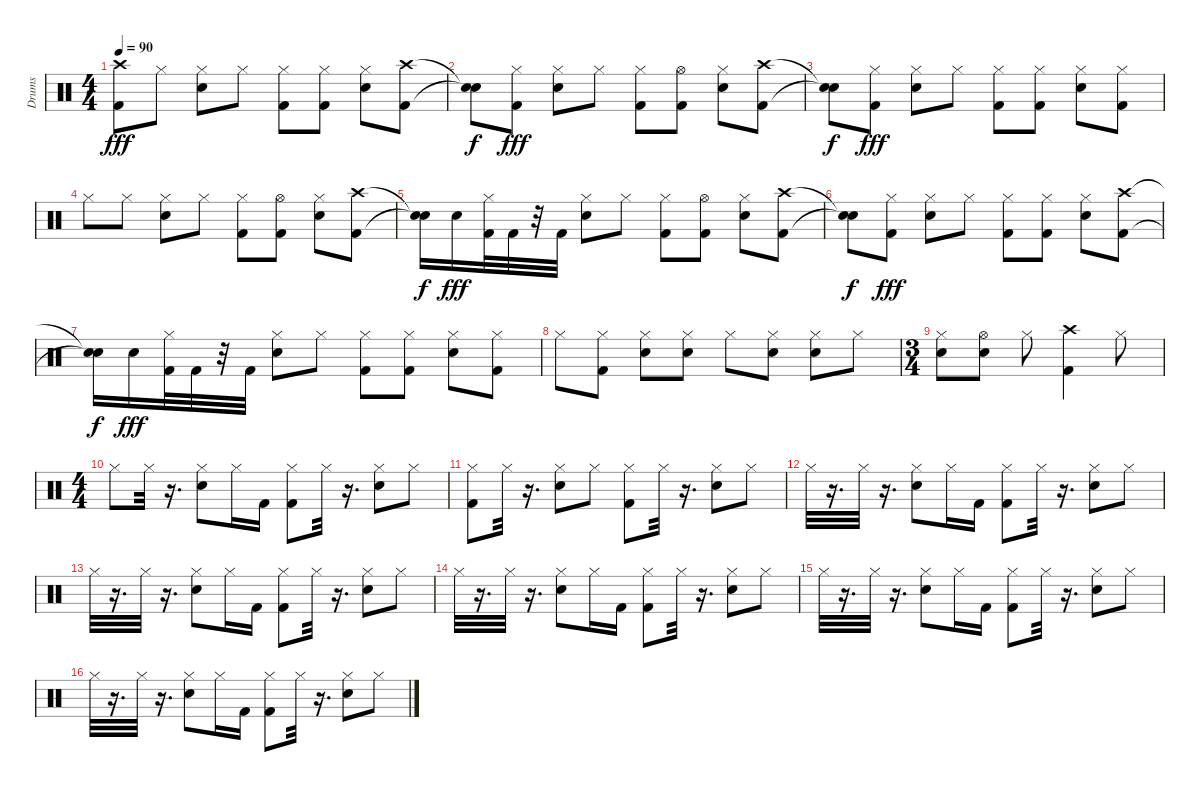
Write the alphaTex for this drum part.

\track ("Drums" "Drums") {instrument percussion}
\staff {score}
\articulation defaults
\ts (4 4)
\tempo 90
\clef neutral
\ks c
("Kick (hit) 2" "Crash high (hit)").8{dy fff} "Hi-Hat (closed)".8 ("Hi-Hat (closed)" "Snare (hit) 2").8 "Hi-Hat (closed)".8 ("Kick (hit) 2" "Hi-Hat (closed)").8 ("Kick (hit) 2" "Hi-Hat (closed)").8 ("Hi-Hat (closed)" "Electric Snare (hit)").8 ("Kick (hit) 2" "Crash high (hit)").8 |
("Snare (hit)"{t} "Snare (hit)"{t}).8{dy f} ("Hi-Hat (closed)" "Kick (hit) 2").8{dy fff} ("Electric Snare (hit)" "Hi-Hat (closed)").8 "Hi-Hat (closed)".8 ("Kick (hit) 2" "Hi-Hat (closed)").8 ("Kick (hit) 2" "Hi-Hat (open)").8 ("Hi-Hat (closed)" "Electric Snare (hit)").8 ("Kick (hit) 2" "Crash high (hit)").8 |
("Snare (hit)"{t} "Snare (hit)"{t}).8{dy f} ("Hi-Hat (closed)" "Kick (hit) 2").8{dy fff} ("Electric Snare (hit)" "Hi-Hat (closed)").8 "Hi-Hat (closed)".8 ("Kick (hit) 2" "Hi-Hat (closed)").8 ("Kick (hit) 2" "Hi-Hat (closed)").8 ("Hi-Hat (closed)" "Electric Snare (hit)").8 ("Hi-Hat (closed)" "Kick (hit) 2").8 |
"Hi-Hat (closed)".8 "Hi-Hat (closed)".8 ("Electric Snare (hit)" "Hi-Hat (closed)").8 "Hi-Hat (closed)".8 ("Kick (hit) 2" "Hi-Hat (closed)").8 ("Kick (hit) 2" "Hi-Hat (open)").8 ("Hi-Hat (closed)" "Electric Snare (hit)").8 ("Kick (hit) 2" "Crash high (hit)").8 |
("Snare (hit)"{t} "Snare (hit)"{t}).16{dy f} "Snare (hit) 2".16{dy fff} ("Kick (hit) 2" "Hi-Hat (closed)").32 "Kick (hit) 2".32 r.32 "Kick (hit) 2".32 ("Electric Snare (hit)" "Hi-Hat (closed)").8 "Hi-Hat (closed)".8 ("Kick (hit) 2" "Hi-Hat (closed)").8 ("Kick (hit) 2" "Hi-Hat (open)").8 ("Hi-Hat (closed)" "Electric Snare (hit)").8 ("Kick (hit) 2" "Crash high (hit)").8 |
("Snare (hit)"{t} "Snare (hit)"{t}).8{dy f} ("Kick (hit) 2" "Hi-Hat (closed)").8{dy fff} ("Snare (hit) 2" "Hi-Hat (closed)").8 "Hi-Hat (closed)".8 ("Kick (hit) 2" "Hi-Hat (closed)").8 ("Kick (hit) 2" "Hi-Hat (closed)").8 ("Hi-Hat (closed)" "Electric Snare (hit)").8 ("Crash high (hit)" "Kick (hit) 2").8 |
("Snare (hit)"{t} "Snare (hit)"{t}).16{dy f} "Snare (hit) 2".16{dy fff} ("Hi-Hat (closed)" "Kick (hit) 2").32 "Kick (hit) 2".32 r.32 "Kick (hit) 2".32 ("Hi-Hat (closed)" "Electric Snare (hit)").8 "Hi-Hat (closed)".8 ("Kick (hit) 2" "Hi-Hat (closed)").8 ("Hi-Hat (closed)" "Kick (hit) 2").8 ("Electric Snare (hit)" "Hi-Hat (closed)").8 ("Hi-Hat (closed)" "Kick (hit) 2").8 |
"Hi-Hat (closed)".8 ("Kick (hit) 2" "Hi-Hat (closed)").8 ("Snare (hit) 2" "Hi-Hat (closed)").8 ("Electric Snare (hit)" "Hi-Hat (closed)").8 "Hi-Hat (closed)".8 ("Snare (hit) 2" "Hi-Hat (closed)").8 ("Hi-Hat (closed)" "Electric Snare (hit)").8 "Hi-Hat (closed)".8 |
\ts (3 4)
("Snare (hit) 2" "Hi-Hat (closed)").8 ("Hi-Hat (open)" "Snare (hit) 2").8 "Hi-Hat (closed)".8 ("Kick (hit) 2" "Crash high (hit)").4 "Hi-Hat (closed)".8 |
\ts (4 4)
"Hi-Hat (closed)".8 "Hi-Hat (closed)".32 r.16{d} ("Hi-Hat (closed)" "Electric Snare (hit)").8 "Hi-Hat (closed)".16 "Kick (hit) 2".16 ("Kick (hit) 2" "Hi-Hat (closed)").8 "Hi-Hat (closed)".32 r.16{d} ("Hi-Hat (closed)" "Snare (hit) 2").8 "Hi-Hat (closed)".8 |
("Hi-Hat (closed)" "Kick (hit) 2").8 "Hi-Hat (closed)".32 r.16{d} ("Hi-Hat (closed)" "Snare (hit) 2").8 "Hi-Hat (closed)".8 ("Kick (hit) 2" "Hi-Hat (closed)").8 "Hi-Hat (closed)".32 r.16{d} ("Hi-Hat (closed)" "Snare (hit) 2").8 "Hi-Hat (closed)".8 |
"Hi-Hat (closed)".32 r.16{d} "Hi-Hat (closed)".32 r.16{d} ("Hi-Hat (closed)" "Electric Snare (hit)").8 "Hi-Hat (closed)".16 "Kick (hit) 2".16 ("Kick (hit) 2" "Hi-Hat (closed)").8 "Hi-Hat (closed)".32 r.16{d} ("Hi-Hat (closed)" "Snare (hit) 2").8 "Hi-Hat (closed)".8 |
"Hi-Hat (closed)".32 r.16{d} "Hi-Hat (closed)".32 r.16{d} ("Hi-Hat (closed)" "Electric Snare (hit)").8 "Hi-Hat (closed)".16 "Kick (hit) 2".16 ("Kick (hit) 2" "Hi-Hat (closed)").8 "Hi-Hat (closed)".32 r.16{d} ("Hi-Hat (closed)" "Snare (hit) 2").8 "Hi-Hat (closed)".8 |
"Hi-Hat (closed)".32 r.16{d} "Hi-Hat (closed)".32 r.16{d} ("Hi-Hat (closed)" "Electric Snare (hit)").8 "Hi-Hat (closed)".16 "Kick (hit) 2".16 ("Kick (hit) 2" "Hi-Hat (closed)").8 "Hi-Hat (closed)".32 r.16{d} ("Hi-Hat (closed)" "Snare (hit) 2").8 "Hi-Hat (closed)".8 |
"Hi-Hat (closed)".32 r.16{d} "Hi-Hat (closed)".32 r.16{d} ("Hi-Hat (closed)" "Electric Snare (hit)").8 "Hi-Hat (closed)".16 "Kick (hit) 2".16 ("Kick (hit) 2" "Hi-Hat (closed)").8 "Hi-Hat (closed)".32 r.16{d} ("Hi-Hat (closed)" "Snare (hit) 2").8 "Hi-Hat (closed)".8 |
"Hi-Hat (closed)".32 r.16{d} "Hi-Hat (closed)".32 r.16{d} ("Hi-Hat (closed)" "Electric Snare (hit)").8 "Hi-Hat (closed)".16 "Kick (hit) 2".16 ("Kick (hit) 2" "Hi-Hat (closed)").8 "Hi-Hat (closed)".32 r.16{d} ("Hi-Hat (closed)" "Snare (hit) 2").8 "Hi-Hat (closed)".8
